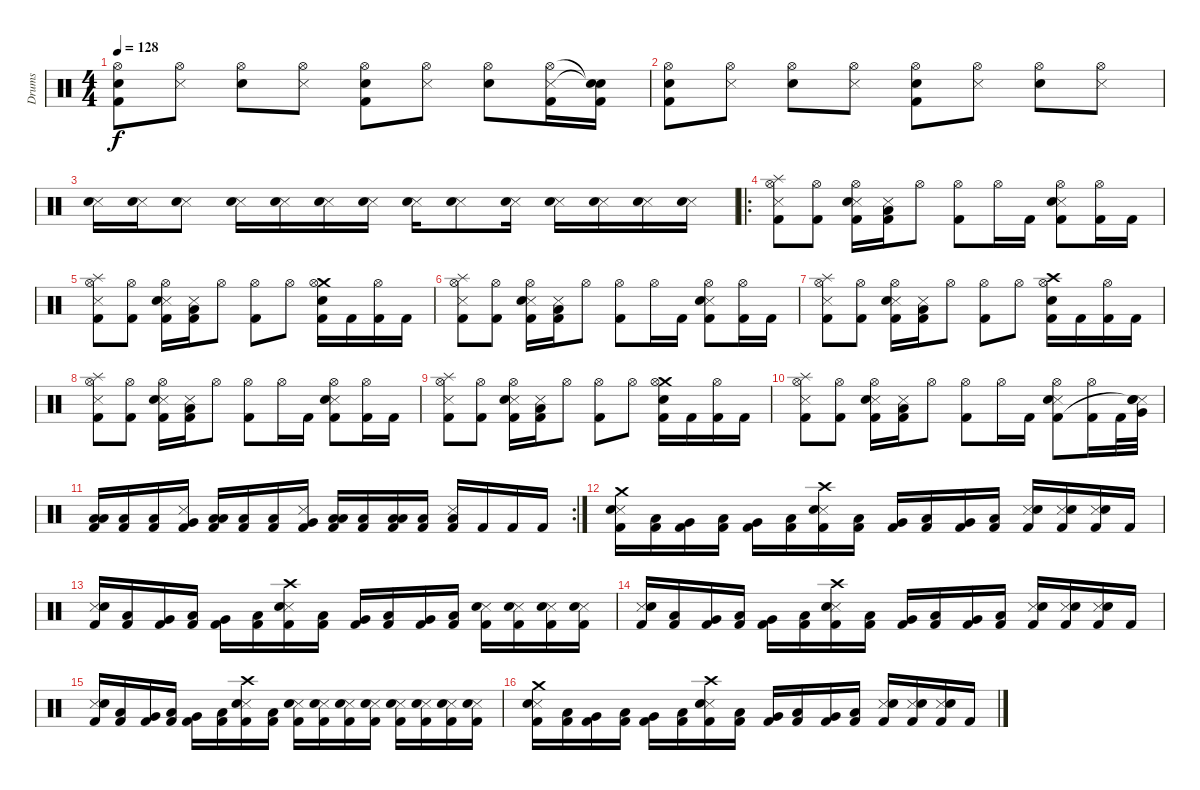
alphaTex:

\track ("Drums" "Drums") {instrument percussion}
\staff {score}
\articulation defaults
\ts (4 4)
\tempo 128
\clef neutral
\ks c
("Electric Snare (hit)" "Hi-Hat (open)" "Kick (hit) 2").8{dy f} ("Hi-Hat (open)" "Snare (side stick) 3").8 ("Electric Snare (hit)" "Hi-Hat (open)").8 ("Hi-Hat (open)" "Snare (side stick) 3").8 ("Electric Snare (hit)" "Hi-Hat (open)" "Kick (hit) 2").8 ("Hi-Hat (open)" "Snare (side stick) 3").8 ("Electric Snare (hit)" "Hi-Hat (open)").8 ("Hi-Hat (open)" "Snare (side stick) 3" "Kick (hit) 2").16 ("Snare (hit)"{t} "Snare (hit)"{t} "Kick (hit) 2").16 |
("Electric Snare (hit)" "Hi-Hat (open)" "Kick (hit) 2").8 ("Hi-Hat (open)" "Snare (side stick) 3").8 ("Electric Snare (hit)" "Hi-Hat (open)").8 ("Hi-Hat (open)" "Snare (side stick) 3").8 ("Electric Snare (hit)" "Hi-Hat (open)" "Kick (hit) 2").8 ("Hi-Hat (open)" "Snare (side stick) 3").8 ("Electric Snare (hit)" "Hi-Hat (open)").8 ("Hi-Hat (open)" "Snare (side stick) 3").8 |
("Snare (side stick) 3" "Electric Snare (hit)").16 ("Snare (side stick) 3" "Electric Snare (hit)").16 ("Snare (side stick) 3" "Electric Snare (hit)").8 ("Snare (side stick) 3" "Electric Snare (hit)").16 ("Snare (side stick) 3" "Electric Snare (hit)").16 ("Snare (side stick) 3" "Electric Snare (hit)").16 ("Snare (side stick) 3" "Electric Snare (hit)").16 ("Snare (side stick) 3" "Electric Snare (hit)").16 ("Snare (side stick) 3" "Electric Snare (hit)").8 ("Snare (side stick) 3" "Electric Snare (hit)").16 ("Snare (side stick) 3" "Electric Snare (hit)").16 ("Snare (side stick) 3" "Electric Snare (hit)").16 ("Snare (side stick) 3" "Electric Snare (hit)").16 ("Snare (side stick) 3" "Electric Snare (hit)").16 |
\ro
("Splash (hit)" "Snare (side stick) 3" "Hi-Hat (open)" "Kick (hit) 2").8 ("Hi-Hat (open)" "Kick (hit) 2").8 ("Snare (side stick) 3" "Hi-Hat (open)" "Electric Snare (hit)" "Kick (hit) 2").16 ("Snare (side stick) 3" "Low Floor Tom (hit)" "Kick (hit) 2").16 "Hi-Hat (open)".8 ("Hi-Hat (open)" "Kick (hit) 2").8 "Hi-Hat (open)".16 "Kick (hit) 2".16 ("Snare (side stick) 3" "Hi-Hat (open)" "Electric Snare (hit)" "Kick (hit) 2").8 ("Hi-Hat (open)" "Kick (hit) 2").16 "Kick (hit) 2".16 |
("Splash (hit)" "Snare (side stick) 3" "Hi-Hat (open)" "Kick (hit) 2").8 ("Hi-Hat (open)" "Kick (hit) 2").8 ("Snare (side stick) 3" "Hi-Hat (open)" "Electric Snare (hit)" "Kick (hit) 2").16 ("Snare (side stick) 3" "Low Floor Tom (hit)" "Kick (hit) 2").16 "Hi-Hat (open)".8 ("Hi-Hat (open)" "Kick (hit) 2").8 "Hi-Hat (open)".8 ("Crash medium (hit)" "Hi-Hat (open)" "Electric Snare (hit)" "Kick (hit) 2").16 "Kick (hit) 2".16 ("Hi-Hat (open)" "Kick (hit) 2").16 "Kick (hit) 2".16 |
("Splash (hit)" "Snare (side stick) 3" "Hi-Hat (open)" "Kick (hit) 2").8 ("Hi-Hat (open)" "Kick (hit) 2").8 ("Snare (side stick) 3" "Hi-Hat (open)" "Electric Snare (hit)" "Kick (hit) 2").16 ("Snare (side stick) 3" "Low Floor Tom (hit)" "Kick (hit) 2").16 "Hi-Hat (open)".8 ("Hi-Hat (open)" "Kick (hit) 2").8 "Hi-Hat (open)".16 "Kick (hit) 2".16 ("Snare (side stick) 3" "Hi-Hat (open)" "Electric Snare (hit)" "Kick (hit) 2").8 ("Hi-Hat (open)" "Kick (hit) 2").16 "Kick (hit) 2".16 |
("Splash (hit)" "Snare (side stick) 3" "Hi-Hat (open)" "Kick (hit) 2").8 ("Hi-Hat (open)" "Kick (hit) 2").8 ("Snare (side stick) 3" "Hi-Hat (open)" "Electric Snare (hit)" "Kick (hit) 2").16 ("Snare (side stick) 3" "Low Floor Tom (hit)" "Kick (hit) 2").16 "Hi-Hat (open)".8 ("Hi-Hat (open)" "Kick (hit) 2").8 "Hi-Hat (open)".8 ("Crash high (hit)" "Hi-Hat (open)" "Electric Snare (hit)" "Kick (hit) 2").16 "Kick (hit) 2".16 ("Hi-Hat (open)" "Kick (hit) 2").16 "Kick (hit) 2".16 |
("Splash (hit)" "Snare (side stick) 3" "Hi-Hat (open)" "Kick (hit) 2").8 ("Hi-Hat (open)" "Kick (hit) 2").8 ("Snare (side stick) 3" "Hi-Hat (open)" "Electric Snare (hit)" "Kick (hit) 2").16 ("Snare (side stick) 3" "Low Floor Tom (hit)" "Kick (hit) 2").16 "Hi-Hat (open)".8 ("Hi-Hat (open)" "Kick (hit) 2").8 "Hi-Hat (open)".16 "Kick (hit) 2".16 ("Snare (side stick) 3" "Hi-Hat (open)" "Electric Snare (hit)" "Kick (hit) 2").8 ("Hi-Hat (open)" "Kick (hit) 2").16 "Kick (hit) 2".16 |
("Splash (hit)" "Snare (side stick) 3" "Hi-Hat (open)" "Kick (hit) 2").8 ("Hi-Hat (open)" "Kick (hit) 2").8 ("Snare (side stick) 3" "Hi-Hat (open)" "Electric Snare (hit)" "Kick (hit) 2").16 ("Snare (side stick) 3" "Low Floor Tom (hit)" "Kick (hit) 2").16 "Hi-Hat (open)".8 ("Hi-Hat (open)" "Kick (hit) 2").8 "Hi-Hat (open)".8 ("Crash medium (hit)" "Hi-Hat (open)" "Electric Snare (hit)" "Kick (hit) 2").16 "Kick (hit) 2".16 ("Hi-Hat (open)" "Kick (hit) 2").16 "Kick (hit) 2".16 |
("Splash (hit)" "Snare (side stick) 3" "Hi-Hat (open)" "Kick (hit) 2").8 ("Hi-Hat (open)" "Kick (hit) 2").8 ("Snare (side stick) 3" "Hi-Hat (open)" "Electric Snare (hit)" "Kick (hit) 2").16 ("Snare (side stick) 3" "Low Floor Tom (hit)" "Kick (hit) 2").16 "Hi-Hat (open)".8 ("Hi-Hat (open)" "Kick (hit) 2").8 "Hi-Hat (open)".16 "Kick (hit) 2".16 ("Snare (side stick) 3" "Hi-Hat (open)" "Electric Snare (hit)" "Kick (hit) 2").8 ("Hi-Hat (open)" "Kick (hit) 2").16 "Kick (hit) 2".32 ("Snare (side stick) 3" "Very Low Tom (hit)" "Electric Snare (hit)" "Snare (hit)"{t}).32 |
\rc 2
("Low Floor Tom (hit)" "Low Floor Tom (hit)" "Kick (hit) 2").16 ("Low Floor Tom (hit)" "Kick (hit) 2").16 ("Low Floor Tom (hit)" "Kick (hit) 2").16 ("Snare (side stick) 3" "Very Low Tom (hit)" "Kick (hit) 2").16 ("Low Floor Tom (hit)" "Low Floor Tom (hit)" "Kick (hit) 2").16 ("Low Floor Tom (hit)" "Kick (hit) 2").16 ("Low Floor Tom (hit)" "Kick (hit) 2").16 ("Snare (side stick) 3" "Very Low Tom (hit)" "Kick (hit) 2").16 ("Low Floor Tom (hit)" "Low Floor Tom (hit)" "Kick (hit) 2").16 ("Low Floor Tom (hit)" "Kick (hit) 2").16 ("Low Floor Tom (hit)" "Low Floor Tom (hit)" "Kick (hit) 2").16 ("Low Floor Tom (hit)" "Kick (hit) 2").16 ("Snare (side stick) 3" "Low Floor Tom (hit)" "Kick (hit) 2").16 "Kick (hit) 2".16 "Kick (hit) 2".16 "Kick (hit) 2".16 |
("Crash medium (hit)" "Snare (side stick) 3" "Electric Snare (hit)" "Kick (hit) 2").16 ("Low Floor Tom (hit)" "Kick (hit) 2").16 ("Very Low Tom (hit)" "Kick (hit) 2").16 ("Low Floor Tom (hit)" "Kick (hit) 2").16 ("Very Low Tom (hit)" "Kick (hit) 2").16 ("Low Floor Tom (hit)" "Kick (hit) 2").16 ("Crash high (hit)" "Snare (side stick) 3" "Electric Snare (hit)" "Kick (hit) 2").16 ("Low Floor Tom (hit)" "Kick (hit) 2").16 ("Very Low Tom (hit)" "Kick (hit) 2").16 ("Low Floor Tom (hit)" "Kick (hit) 2").16 ("Very Low Tom (hit)" "Kick (hit) 2").16 ("Low Floor Tom (hit)" "Kick (hit) 2").16 ("Snare (side stick) 3" "Electric Snare (hit)" "Kick (hit) 2").16 ("Snare (side stick) 3" "Electric Snare (hit)" "Kick (hit) 2").16 ("Snare (side stick) 3" "Electric Snare (hit)" "Kick (hit) 2").16 "Kick (hit) 2".16 |
("Snare (side stick) 3" "Electric Snare (hit)" "Kick (hit) 2").16 ("Low Floor Tom (hit)" "Kick (hit) 2").16 ("Very Low Tom (hit)" "Kick (hit) 2").16 ("Low Floor Tom (hit)" "Kick (hit) 2").16 ("Very Low Tom (hit)" "Kick (hit) 2").16 ("Low Floor Tom (hit)" "Kick (hit) 2").16 ("Crash high (hit)" "Snare (side stick) 3" "Electric Snare (hit)" "Kick (hit) 2").16 ("Low Floor Tom (hit)" "Kick (hit) 2").16 ("Very Low Tom (hit)" "Kick (hit) 2").16 ("Low Floor Tom (hit)" "Kick (hit) 2").16 ("Very Low Tom (hit)" "Kick (hit) 2").16 ("Low Floor Tom (hit)" "Kick (hit) 2").16 ("Snare (side stick) 3" "Electric Snare (hit)" "Kick (hit) 2").16 ("Snare (side stick) 3" "Electric Snare (hit)" "Kick (hit) 2").16 ("Snare (side stick) 3" "Electric Snare (hit)" "Kick (hit) 2").16 ("Snare (side stick) 3" "Electric Snare (hit)" "Kick (hit) 2").16 |
("Snare (side stick) 3" "Electric Snare (hit)" "Kick (hit) 2").16 ("Low Floor Tom (hit)" "Kick (hit) 2").16 ("Very Low Tom (hit)" "Kick (hit) 2").16 ("Low Floor Tom (hit)" "Kick (hit) 2").16 ("Very Low Tom (hit)" "Kick (hit) 2").16 ("Low Floor Tom (hit)" "Kick (hit) 2").16 ("Crash high (hit)" "Snare (side stick) 3" "Electric Snare (hit)" "Kick (hit) 2").16 ("Low Floor Tom (hit)" "Kick (hit) 2").16 ("Very Low Tom (hit)" "Kick (hit) 2").16 ("Low Floor Tom (hit)" "Kick (hit) 2").16 ("Very Low Tom (hit)" "Kick (hit) 2").16 ("Low Floor Tom (hit)" "Kick (hit) 2").16 ("Snare (side stick) 3" "Electric Snare (hit)" "Kick (hit) 2").16 ("Snare (side stick) 3" "Electric Snare (hit)" "Kick (hit) 2").16 ("Snare (side stick) 3" "Electric Snare (hit)" "Kick (hit) 2").16 "Kick (hit) 2".16 |
("Snare (side stick) 3" "Electric Snare (hit)" "Kick (hit) 2").16 ("Low Floor Tom (hit)" "Kick (hit) 2").16 ("Very Low Tom (hit)" "Kick (hit) 2").16 ("Low Floor Tom (hit)" "Kick (hit) 2").16 ("Very Low Tom (hit)" "Kick (hit) 2").16 ("Low Floor Tom (hit)" "Kick (hit) 2").16 ("Crash high (hit)" "Snare (side stick) 3" "Electric Snare (hit)" "Kick (hit) 2").16 ("Low Floor Tom (hit)" "Kick (hit) 2").16 ("Snare (side stick) 3" "Electric Snare (hit)" "Kick (hit) 2").16 ("Snare (side stick) 3" "Electric Snare (hit)" "Kick (hit) 2").16 ("Snare (side stick) 3" "Electric Snare (hit)" "Kick (hit) 2").16 ("Snare (side stick) 3" "Electric Snare (hit)" "Kick (hit) 2").16 ("Snare (side stick) 3" "Electric Snare (hit)" "Kick (hit) 2").16 ("Snare (side stick) 3" "Electric Snare (hit)" "Kick (hit) 2").16 ("Snare (side stick) 3" "Electric Snare (hit)" "Kick (hit) 2").16 ("Snare (side stick) 3" "Electric Snare (hit)" "Kick (hit) 2").16 |
("Crash medium (hit)" "Snare (side stick) 3" "Electric Snare (hit)" "Kick (hit) 2").16 ("Low Floor Tom (hit)" "Kick (hit) 2").16 ("Very Low Tom (hit)" "Kick (hit) 2").16 ("Low Floor Tom (hit)" "Kick (hit) 2").16 ("Very Low Tom (hit)" "Kick (hit) 2").16 ("Low Floor Tom (hit)" "Kick (hit) 2").16 ("Crash high (hit)" "Snare (side stick) 3" "Electric Snare (hit)" "Kick (hit) 2").16 ("Low Floor Tom (hit)" "Kick (hit) 2").16 ("Very Low Tom (hit)" "Kick (hit) 2").16 ("Low Floor Tom (hit)" "Kick (hit) 2").16 ("Very Low Tom (hit)" "Kick (hit) 2").16 ("Low Floor Tom (hit)" "Kick (hit) 2").16 ("Snare (side stick) 3" "Electric Snare (hit)" "Kick (hit) 2").16 ("Snare (side stick) 3" "Electric Snare (hit)" "Kick (hit) 2").16 ("Snare (side stick) 3" "Electric Snare (hit)" "Kick (hit) 2").16 "Kick (hit) 2".16
